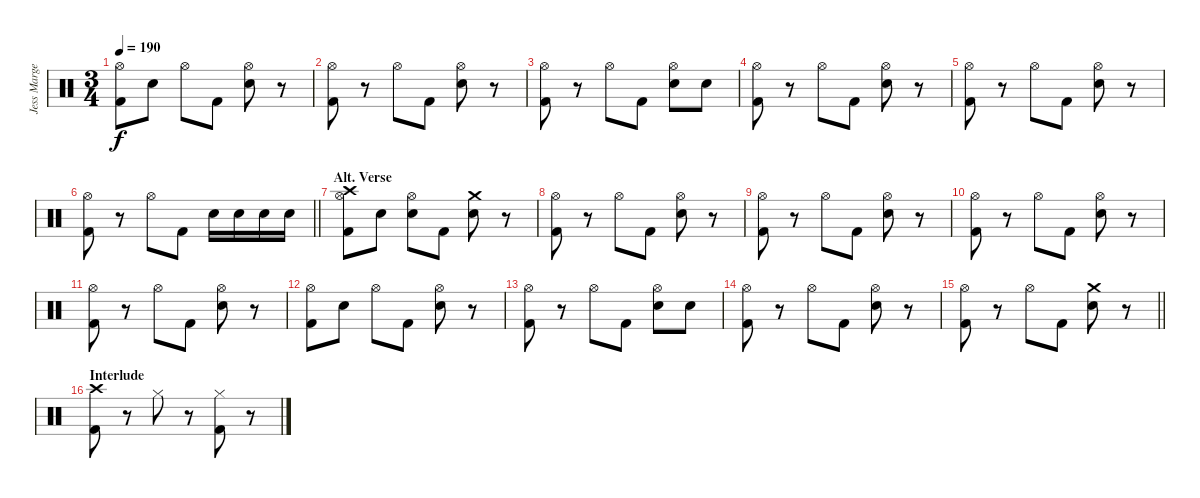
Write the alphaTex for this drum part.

\track ("Jess Margera" "Jess Marge") {instrument percussion}
\staff {score}
\articulation defaults
\ts (3 4)
\tempo 190
\clef neutral
\ks c
("Hi-Hat (open)" "Kick (hit) 2").8{dy f} "Electric Snare (hit)".8 "Hi-Hat (open)".8 "Kick (hit) 2".8 ("Hi-Hat (open)" "Electric Snare (hit)").8 r.8 |
("Hi-Hat (open)" "Kick (hit) 2").8 r.8 "Hi-Hat (open)".8 "Kick (hit) 2".8 ("Hi-Hat (open)" "Electric Snare (hit)").8 r.8 |
("Hi-Hat (open)" "Kick (hit) 2").8 r.8 "Hi-Hat (open)".8 "Kick (hit) 2".8 ("Hi-Hat (open)" "Electric Snare (hit)").8 "Electric Snare (hit)".8 |
("Hi-Hat (open)" "Kick (hit) 2").8 r.8 "Hi-Hat (open)".8 "Kick (hit) 2".8 ("Hi-Hat (open)" "Electric Snare (hit)").8 r.8 |
("Hi-Hat (open)" "Kick (hit) 2").8 r.8 "Hi-Hat (open)".8 "Kick (hit) 2".8 ("Hi-Hat (open)" "Electric Snare (hit)").8 r.8 |
\barLineRight lightlight
("Hi-Hat (open)" "Kick (hit) 2").8 r.8 "Hi-Hat (open)".8 "Kick (hit) 2".8 "Electric Snare (hit)".16 "Electric Snare (hit)".16 "Electric Snare (hit)".16 "Electric Snare (hit)".16 |
\section ("" "Alt. Verse")
("Crash high (hit)" "Hi-Hat (open)" "Kick (hit) 2").8 "Electric Snare (hit)".8 ("Hi-Hat (open)" "Electric Snare (hit)").8 "Kick (hit) 2".8 ("Crash medium (hit)" "Electric Snare (hit)").8 r.8 |
("Hi-Hat (open)" "Kick (hit) 2").8 r.8 "Hi-Hat (open)".8 "Kick (hit) 2".8 ("Hi-Hat (open)" "Electric Snare (hit)").8 r.8 |
("Hi-Hat (open)" "Kick (hit) 2").8 r.8 "Hi-Hat (open)".8 "Kick (hit) 2".8 ("Hi-Hat (open)" "Electric Snare (hit)").8 r.8 |
("Hi-Hat (open)" "Kick (hit) 2").8 r.8 "Hi-Hat (open)".8 "Kick (hit) 2".8 ("Hi-Hat (open)" "Electric Snare (hit)").8 r.8 |
("Hi-Hat (open)" "Kick (hit) 2").8 r.8 "Hi-Hat (open)".8 "Kick (hit) 2".8 ("Hi-Hat (open)" "Electric Snare (hit)").8 r.8 |
("Hi-Hat (open)" "Kick (hit) 2").8 "Electric Snare (hit)".8 "Hi-Hat (open)".8 "Kick (hit) 2".8 ("Hi-Hat (open)" "Electric Snare (hit)").8 r.8 |
("Hi-Hat (open)" "Kick (hit) 2").8 r.8 "Hi-Hat (open)".8 "Kick (hit) 2".8 ("Hi-Hat (open)" "Electric Snare (hit)").8 "Electric Snare (hit)".8 |
("Hi-Hat (open)" "Kick (hit) 2").8 r.8 "Hi-Hat (open)".8 "Kick (hit) 2".8 ("Hi-Hat (open)" "Electric Snare (hit)").8 r.8 |
\barLineRight lightlight
("Hi-Hat (open)" "Kick (hit) 2").8 r.8 "Hi-Hat (open)".8 "Kick (hit) 2".8 ("Crash medium (hit)" "Electric Snare (hit)").8 r.8 |
\section ("" "Interlude")
("Crash high (hit)" "Kick (hit) 2").8 r.8 "Hi-Hat (closed)".8 r.8 ("Hi-Hat (closed)" "Kick (hit) 2").8 r.8
